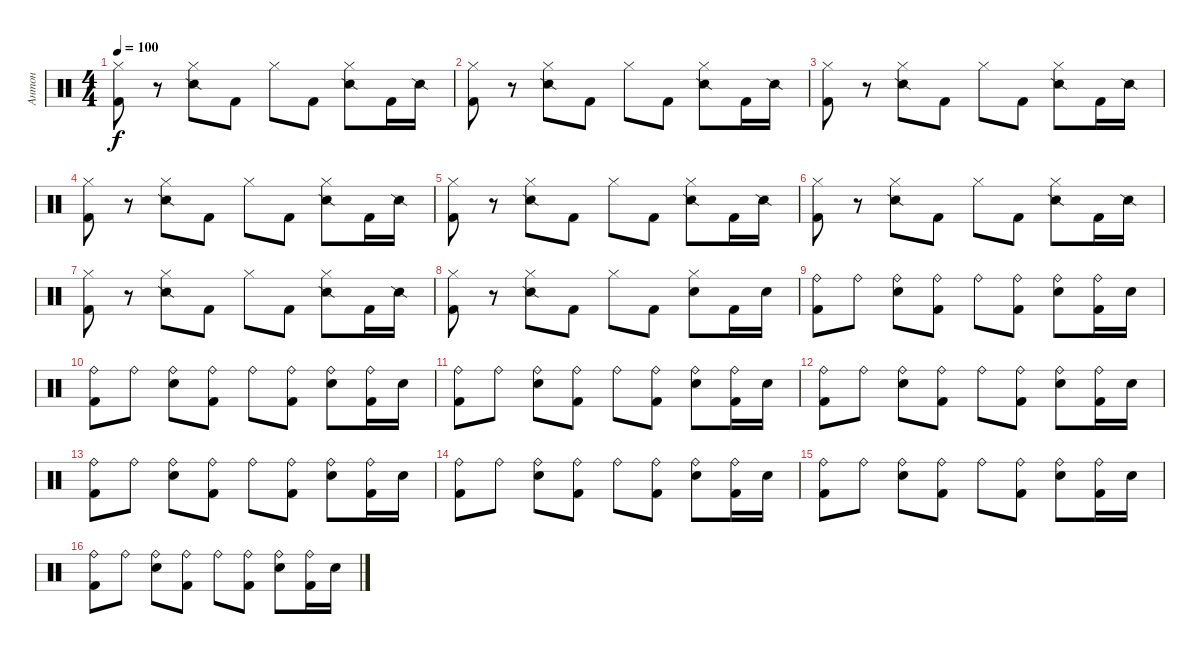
\track ("Антон" "Антон") {instrument percussion}
\staff {score}
\articulation defaults
\ts (4 4)
\tempo 100
\clef neutral
\ks c
("Hi-Hat (closed)" "Kick (hit) 2").8{dy f} r.8 ("Hi-Hat (closed)" "Snare (side stick) 2").8 "Kick (hit) 2".8 "Hi-Hat (closed)".8 "Kick (hit) 2".8 ("Hi-Hat (closed)" "Snare (side stick) 2").8 "Kick (hit) 2".16 "Snare (side stick) 2".16 |
("Hi-Hat (closed)" "Kick (hit) 2").8 r.8 ("Hi-Hat (closed)" "Snare (side stick) 2").8 "Kick (hit) 2".8 "Hi-Hat (closed)".8 "Kick (hit) 2".8 ("Hi-Hat (closed)" "Snare (side stick) 2").8 "Kick (hit) 2".16 "Snare (side stick) 2".16 |
("Hi-Hat (closed)" "Kick (hit) 2").8 r.8 ("Hi-Hat (closed)" "Snare (side stick) 2").8 "Kick (hit) 2".8 "Hi-Hat (closed)".8 "Kick (hit) 2".8 ("Hi-Hat (closed)" "Snare (side stick) 2").8 "Kick (hit) 2".16 "Snare (side stick) 2".16 |
("Hi-Hat (closed)" "Kick (hit) 2").8 r.8 ("Hi-Hat (closed)" "Snare (side stick) 2").8 "Kick (hit) 2".8 "Hi-Hat (closed)".8 "Kick (hit) 2".8 ("Hi-Hat (closed)" "Snare (side stick) 2").8 "Kick (hit) 2".16 "Snare (side stick) 2".16 |
("Hi-Hat (closed)" "Kick (hit) 2").8 r.8 ("Hi-Hat (closed)" "Snare (side stick) 2").8 "Kick (hit) 2".8 "Hi-Hat (closed)".8 "Kick (hit) 2".8 ("Hi-Hat (closed)" "Snare (side stick) 2").8 "Kick (hit) 2".16 "Snare (side stick) 2".16 |
("Hi-Hat (closed)" "Kick (hit) 2").8 r.8 ("Hi-Hat (closed)" "Snare (side stick) 2").8 "Kick (hit) 2".8 "Hi-Hat (closed)".8 "Kick (hit) 2".8 ("Hi-Hat (closed)" "Snare (side stick) 2").8 "Kick (hit) 2".16 "Snare (side stick) 2".16 |
("Hi-Hat (closed)" "Kick (hit) 2").8 r.8 ("Hi-Hat (closed)" "Snare (side stick) 2").8 "Kick (hit) 2".8 "Hi-Hat (closed)".8 "Kick (hit) 2".8 ("Hi-Hat (closed)" "Snare (side stick) 2").8 "Kick (hit) 2".16 "Snare (side stick) 2".16 |
("Hi-Hat (closed)" "Kick (hit) 2").8 r.8 ("Hi-Hat (closed)" "Snare (side stick) 2").8 "Kick (hit) 2".8 "Hi-Hat (closed)".8 "Kick (hit) 2".8 ("Hi-Hat (closed)" "Electric Snare (hit)").8 "Kick (hit) 2".16 "Electric Snare (hit)".16 |
("Ride (bell)" "Kick (hit) 2").8 "Ride (bell)".8 ("Ride (bell)" "Electric Snare (hit)").8 ("Ride (bell)" "Kick (hit) 2").8 "Ride (bell)".8 ("Ride (bell)" "Kick (hit) 2").8 ("Ride (bell)" "Electric Snare (hit)").8 ("Ride (bell)" "Kick (hit) 2").16 "Electric Snare (hit)".16 |
("Ride (bell)" "Kick (hit) 2").8 "Ride (bell)".8 ("Ride (bell)" "Electric Snare (hit)").8 ("Ride (bell)" "Kick (hit) 2").8 "Ride (bell)".8 ("Ride (bell)" "Kick (hit) 2").8 ("Ride (bell)" "Electric Snare (hit)").8 ("Ride (bell)" "Kick (hit) 2").16 "Electric Snare (hit)".16 |
("Ride (bell)" "Kick (hit) 2").8 "Ride (bell)".8 ("Ride (bell)" "Electric Snare (hit)").8 ("Ride (bell)" "Kick (hit) 2").8 "Ride (bell)".8 ("Ride (bell)" "Kick (hit) 2").8 ("Ride (bell)" "Electric Snare (hit)").8 ("Ride (bell)" "Kick (hit) 2").16 "Electric Snare (hit)".16 |
("Ride (bell)" "Kick (hit) 2").8 "Ride (bell)".8 ("Ride (bell)" "Electric Snare (hit)").8 ("Ride (bell)" "Kick (hit) 2").8 "Ride (bell)".8 ("Ride (bell)" "Kick (hit) 2").8 ("Ride (bell)" "Electric Snare (hit)").8 ("Ride (bell)" "Kick (hit) 2").16 "Electric Snare (hit)".16 |
("Ride (bell)" "Kick (hit) 2").8 "Ride (bell)".8 ("Ride (bell)" "Electric Snare (hit)").8 ("Ride (bell)" "Kick (hit) 2").8 "Ride (bell)".8 ("Ride (bell)" "Kick (hit) 2").8 ("Ride (bell)" "Electric Snare (hit)").8 ("Ride (bell)" "Kick (hit) 2").16 "Electric Snare (hit)".16 |
("Ride (bell)" "Kick (hit) 2").8 "Ride (bell)".8 ("Ride (bell)" "Electric Snare (hit)").8 ("Ride (bell)" "Kick (hit) 2").8 "Ride (bell)".8 ("Ride (bell)" "Kick (hit) 2").8 ("Ride (bell)" "Electric Snare (hit)").8 ("Ride (bell)" "Kick (hit) 2").16 "Electric Snare (hit)".16 |
("Ride (bell)" "Kick (hit) 2").8 "Ride (bell)".8 ("Ride (bell)" "Electric Snare (hit)").8 ("Ride (bell)" "Kick (hit) 2").8 "Ride (bell)".8 ("Ride (bell)" "Kick (hit) 2").8 ("Ride (bell)" "Electric Snare (hit)").8 ("Ride (bell)" "Kick (hit) 2").16 "Electric Snare (hit)".16 |
("Ride (bell)" "Kick (hit) 2").8 "Ride (bell)".8 ("Ride (bell)" "Electric Snare (hit)").8 ("Ride (bell)" "Kick (hit) 2").8 "Ride (bell)".8 ("Ride (bell)" "Kick (hit) 2").8 ("Ride (bell)" "Electric Snare (hit)").8 ("Ride (bell)" "Kick (hit) 2").16 "Electric Snare (hit)".16
